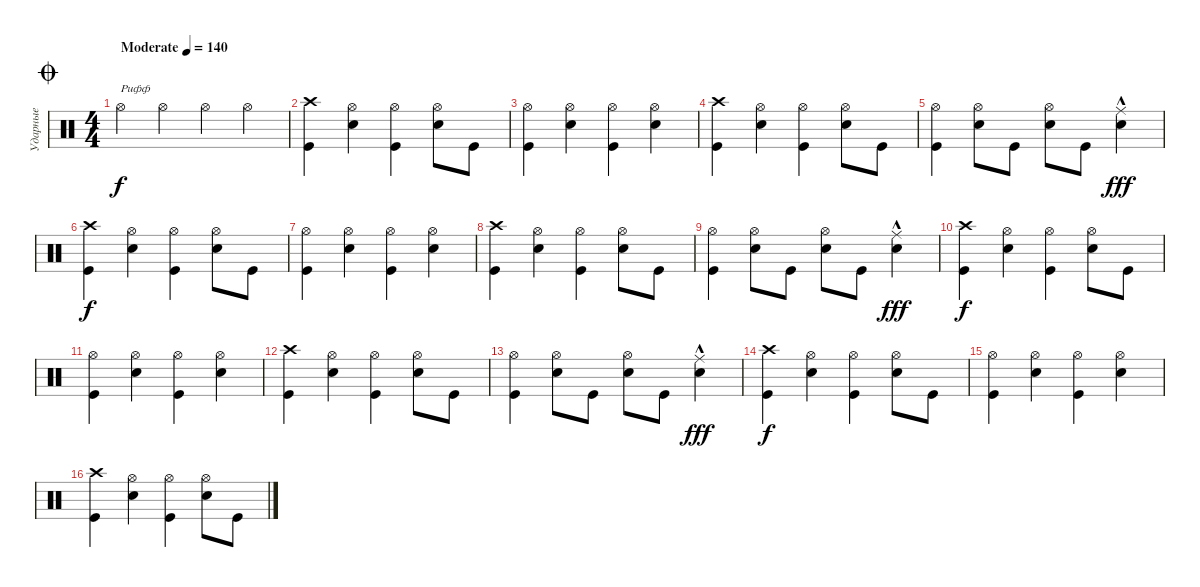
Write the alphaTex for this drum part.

\track ("Ударные" "Ударные") {instrument percussion}
\staff {score}
\articulation defaults
\ts (4 4)
\jump coda
\tempo (140 "Moderate")
\clef neutral
\ks c "Hi-Hat (open)".4{txt "Рифф" dy f} "Hi-Hat (open)".4 "Hi-Hat (open)".4 "Hi-Hat (open)".4
|
("Crash high (hit)" "Kick (hit)").4 ("Hi-Hat (open)" "Electric Snare (hit)").4 ("Hi-Hat (open)" "Kick (hit)").4 ("Hi-Hat (open)" "Electric Snare (hit)").8 "Kick (hit)".8 |
("Hi-Hat (open)" "Kick (hit)").4 ("Hi-Hat (open)" "Electric Snare (hit)").4 ("Hi-Hat (open)" "Kick (hit)").4 ("Hi-Hat (open)" "Electric Snare (hit)").4 |
("Crash high (hit)" "Kick (hit)").4 ("Hi-Hat (open)" "Electric Snare (hit)").4 ("Hi-Hat (open)" "Kick (hit)").4 ("Hi-Hat (open)" "Electric Snare (hit)").8 "Kick (hit)".8 |
("Hi-Hat (open)" "Kick (hit)").4 ("Hi-Hat (open)" "Electric Snare (hit)").8 "Kick (hit)".8 ("Hi-Hat (open)" "Electric Snare (hit)").8 "Kick (hit)".8 ("Ride (middle)"{hac} "Electric Snare (hit)").4{dy fff} |
("Crash high (hit)" "Kick (hit)").4{dy f} ("Hi-Hat (open)" "Electric Snare (hit)").4 ("Hi-Hat (open)" "Kick (hit)").4 ("Hi-Hat (open)" "Electric Snare (hit)").8 "Kick (hit)".8 |
("Hi-Hat (open)" "Kick (hit)").4 ("Hi-Hat (open)" "Electric Snare (hit)").4 ("Hi-Hat (open)" "Kick (hit)").4 ("Hi-Hat (open)" "Electric Snare (hit)").4 |
("Crash high (hit)" "Kick (hit)").4 ("Hi-Hat (open)" "Electric Snare (hit)").4 ("Hi-Hat (open)" "Kick (hit)").4 ("Hi-Hat (open)" "Electric Snare (hit)").8 "Kick (hit)".8 |
("Hi-Hat (open)" "Kick (hit)").4 ("Hi-Hat (open)" "Electric Snare (hit)").8 "Kick (hit)".8 ("Hi-Hat (open)" "Electric Snare (hit)").8 "Kick (hit)".8 ("Ride (middle)"{hac} "Electric Snare (hit)").4{dy fff} |
("Crash high (hit)" "Kick (hit)").4{dy f} ("Hi-Hat (open)" "Electric Snare (hit)").4 ("Hi-Hat (open)" "Kick (hit)").4 ("Hi-Hat (open)" "Electric Snare (hit)").8 "Kick (hit)".8 |
("Hi-Hat (open)" "Kick (hit)").4 ("Hi-Hat (open)" "Electric Snare (hit)").4 ("Hi-Hat (open)" "Kick (hit)").4 ("Hi-Hat (open)" "Electric Snare (hit)").4 |
("Crash high (hit)" "Kick (hit)").4 ("Hi-Hat (open)" "Electric Snare (hit)").4 ("Hi-Hat (open)" "Kick (hit)").4 ("Hi-Hat (open)" "Electric Snare (hit)").8 "Kick (hit)".8 |
("Hi-Hat (open)" "Kick (hit)").4 ("Hi-Hat (open)" "Electric Snare (hit)").8 "Kick (hit)".8 ("Hi-Hat (open)" "Electric Snare (hit)").8 "Kick (hit)".8 ("Ride (middle)"{hac} "Electric Snare (hit)").4{dy fff} |
("Crash high (hit)" "Kick (hit)").4{dy f} ("Hi-Hat (open)" "Electric Snare (hit)").4 ("Hi-Hat (open)" "Kick (hit)").4 ("Hi-Hat (open)" "Electric Snare (hit)").8 "Kick (hit)".8 |
("Hi-Hat (open)" "Kick (hit)").4 ("Hi-Hat (open)" "Electric Snare (hit)").4 ("Hi-Hat (open)" "Kick (hit)").4 ("Hi-Hat (open)" "Electric Snare (hit)").4 |
("Crash high (hit)" "Kick (hit)").4 ("Hi-Hat (open)" "Electric Snare (hit)").4 ("Hi-Hat (open)" "Kick (hit)").4 ("Hi-Hat (open)" "Electric Snare (hit)").8 "Kick (hit)".8
